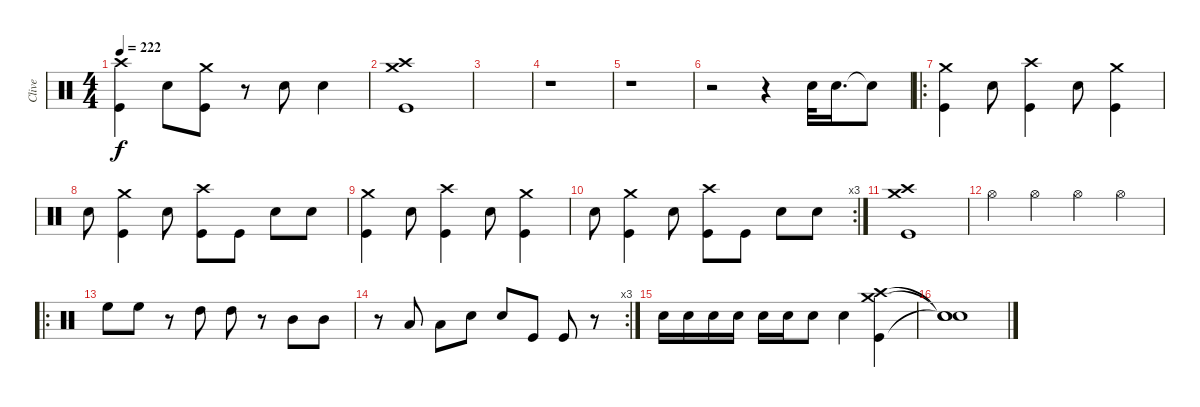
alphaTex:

\track ("Clive" "Clive") {instrument percussion}
\staff {score}
\articulation defaults
\ts (4 4)
\tempo 222
\clef neutral
\ks c
("Crash high (hit)" "Kick (hit)").4{dy f} "Snare (hit) 2".8 ("Crash medium (hit)" "Kick (hit)").8 r.8 "Snare (hit) 2".8 "Snare (hit) 2".4 |
("Crash medium (hit)" "Crash high (hit)" "Kick (hit)").1 |
|
r.1 |
r.1 |
r.2 r.4 "Snare (hit) 2".32 "Snare (hit) 2".16{d} "Snare (hit)"{t}.8 |
\ro
("Crash medium (hit)" "Kick (hit)").4 "Snare (hit) 2".8 ("Crash high (hit)" "Kick (hit)").4 "Snare (hit) 2".8 ("Crash medium (hit)" "Kick (hit)").4 |
"Snare (hit) 2".8 ("Crash medium (hit)" "Kick (hit)").4 "Snare (hit) 2".8 ("Crash high (hit)" "Kick (hit)").8 "Kick (hit)".8 "Snare (hit) 2".8 "Snare (hit) 2".8 |
("Crash medium (hit)" "Kick (hit)").4 "Snare (hit) 2".8 ("Crash high (hit)" "Kick (hit)").4 "Snare (hit) 2".8 ("Crash medium (hit)" "Kick (hit)").4 |
\rc 3 "Snare (hit) 2".8
("Crash medium (hit)" "Kick (hit)").4 "Snare (hit) 2".8 ("Crash high (hit)" "Kick (hit)").8 "Kick (hit)".8 "Snare (hit) 2".8 "Snare (hit) 2".8 |
("Crash medium (hit)" "Crash high (hit)" "Kick (hit)").1 |
"Hi-Hat (open)".4 "Hi-Hat (open)".4 "Hi-Hat (open)".4 "Hi-Hat (open)".4 |
\ro "High Floor Tom (hit)".8 "High Floor Tom (hit)".8
r.8 "High Tom (hit)".8 "High Tom (hit)".8 r.8 "Mid Tom (hit)".8 "Mid Tom (hit)".8 |
\rc 3
r.8 "Low Tom (hit)".8 "Low Tom (hit)".8 "Snare (hit) 2".8 "Snare (hit) 2".8 "Kick (hit)".8 "Kick (hit)".8 r.8 |
"Snare (hit) 2".16 "Snare (hit) 2".16 "Snare (hit) 2".16 "Snare (hit) 2".16 "Snare (hit) 2".16 "Snare (hit) 2".16 "Snare (hit) 2".8 "Snare (hit) 2".4 ("Crash medium (hit)" "Crash high (hit)" "Kick (hit)").4 |
("Snare (hit)"{t} "Snare (hit)"{t} "Snare (hit)"{t}).1
